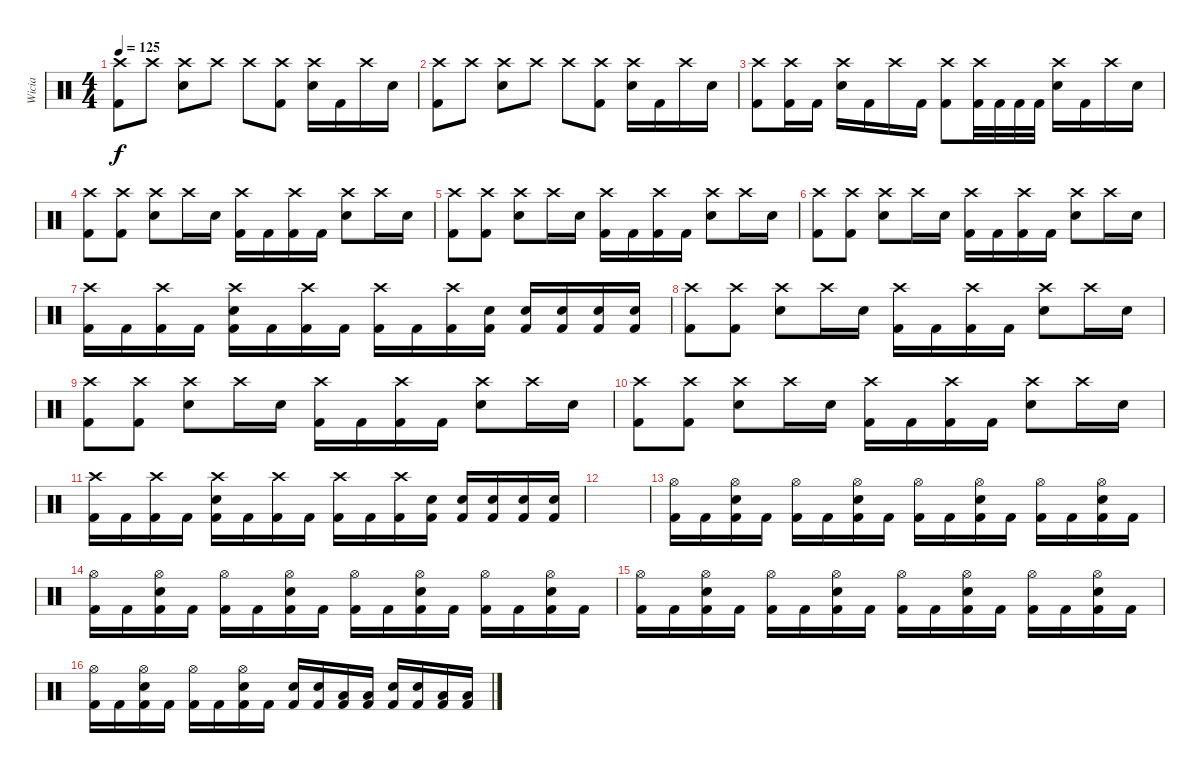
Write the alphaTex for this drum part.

\track ("Wicia" "Wicia") {instrument percussion}
\staff {score}
\articulation defaults
\ts (4 4)
\tempo 125
\clef neutral
\ks c
("Crash high (hit)" "Kick (hit) 2").8{dy f} "Crash high (hit)".8 ("Crash high (hit)" "Electric Snare (hit)").8 "Crash high (hit)".8 "Crash high (hit)".8 ("Crash high (hit)" "Kick (hit) 2").8 ("Crash high (hit)" "Electric Snare (hit)").16 "Kick (hit) 2".16 "Crash high (hit)".16 "Electric Snare (hit)".16 |
("Crash high (hit)" "Kick (hit) 2").8 "Crash high (hit)".8 ("Crash high (hit)" "Electric Snare (hit)").8 "Crash high (hit)".8 "Crash high (hit)".8 ("Crash high (hit)" "Kick (hit) 2").8 ("Crash high (hit)" "Electric Snare (hit)").16 "Kick (hit) 2".16 "Crash high (hit)".16 "Electric Snare (hit)".16 |
("Crash high (hit)" "Kick (hit) 2").8 ("Crash high (hit)" "Kick (hit) 2").16 "Kick (hit) 2".16 ("Crash high (hit)" "Electric Snare (hit)").16 "Kick (hit) 2".16 "Crash high (hit)".16 "Kick (hit) 2".16 ("Crash high (hit)" "Kick (hit) 2").8 ("Crash high (hit)" "Kick (hit) 2").32 "Kick (hit) 2".32 "Kick (hit) 2".32 "Kick (hit) 2".32 ("Crash high (hit)" "Electric Snare (hit)").16 "Kick (hit) 2".16 "Crash high (hit)".16 "Electric Snare (hit)".16 |
("Crash high (hit)" "Kick (hit) 2").8 ("Crash high (hit)" "Kick (hit) 2").8 ("Crash high (hit)" "Electric Snare (hit)").8 "Crash high (hit)".16 "Electric Snare (hit)".16 ("Crash high (hit)" "Kick (hit) 2").16 "Kick (hit) 2".16 ("Crash high (hit)" "Kick (hit) 2").16 "Kick (hit) 2".16 ("Crash high (hit)" "Electric Snare (hit)").8 "Crash high (hit)".16 "Electric Snare (hit)".16 |
("Crash high (hit)" "Kick (hit) 2").8 ("Crash high (hit)" "Kick (hit) 2").8 ("Crash high (hit)" "Electric Snare (hit)").8 "Crash high (hit)".16 "Electric Snare (hit)".16 ("Crash high (hit)" "Kick (hit) 2").16 "Kick (hit) 2".16 ("Crash high (hit)" "Kick (hit) 2").16 "Kick (hit) 2".16 ("Crash high (hit)" "Electric Snare (hit)").8 "Crash high (hit)".16 "Electric Snare (hit)".16 |
("Crash high (hit)" "Kick (hit) 2").8 ("Crash high (hit)" "Kick (hit) 2").8 ("Crash high (hit)" "Electric Snare (hit)").8 "Crash high (hit)".16 "Electric Snare (hit)".16 ("Crash high (hit)" "Kick (hit) 2").16 "Kick (hit) 2".16 ("Crash high (hit)" "Kick (hit) 2").16 "Kick (hit) 2".16 ("Crash high (hit)" "Electric Snare (hit)").8 "Crash high (hit)".16 "Electric Snare (hit)".16 |
("Crash high (hit)" "Kick (hit) 2").16 "Kick (hit) 2".16 ("Crash high (hit)" "Kick (hit) 2").16 "Kick (hit) 2".16 ("Crash high (hit)" "Electric Snare (hit)" "Kick (hit) 2").16 "Kick (hit) 2".16 ("Crash high (hit)" "Kick (hit) 2").16 "Kick (hit) 2".16 ("Crash high (hit)" "Kick (hit) 2").16 "Kick (hit) 2".16 ("Crash high (hit)" "Kick (hit) 2").16 ("Electric Snare (hit)" "Kick (hit) 2").16 ("Electric Snare (hit)" "Kick (hit) 2").16 ("Electric Snare (hit)" "Kick (hit) 2").16 ("Electric Snare (hit)" "Kick (hit) 2").16 ("Electric Snare (hit)" "Kick (hit) 2").16 |
("Crash high (hit)" "Kick (hit) 2").8 ("Crash high (hit)" "Kick (hit) 2").8 ("Crash high (hit)" "Electric Snare (hit)").8 "Crash high (hit)".16 "Electric Snare (hit)".16 ("Crash high (hit)" "Kick (hit) 2").16 "Kick (hit) 2".16 ("Crash high (hit)" "Kick (hit) 2").16 "Kick (hit) 2".16 ("Crash high (hit)" "Electric Snare (hit)").8 "Crash high (hit)".16 "Electric Snare (hit)".16 |
("Crash high (hit)" "Kick (hit) 2").8 ("Crash high (hit)" "Kick (hit) 2").8 ("Crash high (hit)" "Electric Snare (hit)").8 "Crash high (hit)".16 "Electric Snare (hit)".16 ("Crash high (hit)" "Kick (hit) 2").16 "Kick (hit) 2".16 ("Crash high (hit)" "Kick (hit) 2").16 "Kick (hit) 2".16 ("Crash high (hit)" "Electric Snare (hit)").8 "Crash high (hit)".16 "Electric Snare (hit)".16 |
("Crash high (hit)" "Kick (hit) 2").8 ("Crash high (hit)" "Kick (hit) 2").8 ("Crash high (hit)" "Electric Snare (hit)").8 "Crash high (hit)".16 "Electric Snare (hit)".16 ("Crash high (hit)" "Kick (hit) 2").16 "Kick (hit) 2".16 ("Crash high (hit)" "Kick (hit) 2").16 "Kick (hit) 2".16 ("Crash high (hit)" "Electric Snare (hit)").8 "Crash high (hit)".16 "Electric Snare (hit)".16 |
("Crash high (hit)" "Kick (hit) 2").16 "Kick (hit) 2".16 ("Crash high (hit)" "Kick (hit) 2").16 "Kick (hit) 2".16 ("Crash high (hit)" "Electric Snare (hit)" "Kick (hit) 2").16 "Kick (hit) 2".16 ("Crash high (hit)" "Kick (hit) 2").16 "Kick (hit) 2".16 ("Crash high (hit)" "Kick (hit) 2").16 "Kick (hit) 2".16 ("Crash high (hit)" "Kick (hit) 2").16 ("Electric Snare (hit)" "Kick (hit) 2").16 ("Electric Snare (hit)" "Kick (hit) 2").16 ("Electric Snare (hit)" "Kick (hit) 2").16 ("Electric Snare (hit)" "Kick (hit) 2").16 ("Electric Snare (hit)" "Kick (hit) 2").16 |
|
("Hi-Hat (open)" "Kick (hit) 2").16 "Kick (hit) 2".16 ("Hi-Hat (open)" "Electric Snare (hit)" "Kick (hit) 2").16 "Kick (hit) 2".16 ("Hi-Hat (open)" "Kick (hit) 2").16 "Kick (hit) 2".16 ("Hi-Hat (open)" "Electric Snare (hit)" "Kick (hit) 2").16 "Kick (hit) 2".16 ("Hi-Hat (open)" "Kick (hit) 2").16 "Kick (hit) 2".16 ("Hi-Hat (open)" "Electric Snare (hit)" "Kick (hit) 2").16 "Kick (hit) 2".16 ("Hi-Hat (open)" "Kick (hit) 2").16 "Kick (hit) 2".16 ("Hi-Hat (open)" "Electric Snare (hit)" "Kick (hit) 2").16 "Kick (hit) 2".16 |
("Hi-Hat (open)" "Kick (hit) 2").16 "Kick (hit) 2".16 ("Hi-Hat (open)" "Electric Snare (hit)" "Kick (hit) 2").16 "Kick (hit) 2".16 ("Hi-Hat (open)" "Kick (hit) 2").16 "Kick (hit) 2".16 ("Hi-Hat (open)" "Electric Snare (hit)" "Kick (hit) 2").16 "Kick (hit) 2".16 ("Hi-Hat (open)" "Kick (hit) 2").16 "Kick (hit) 2".16 ("Hi-Hat (open)" "Electric Snare (hit)" "Kick (hit) 2").16 "Kick (hit) 2".16 ("Hi-Hat (open)" "Kick (hit) 2").16 "Kick (hit) 2".16 ("Hi-Hat (open)" "Electric Snare (hit)" "Kick (hit) 2").16 "Kick (hit) 2".16 |
("Hi-Hat (open)" "Kick (hit) 2").16 "Kick (hit) 2".16 ("Hi-Hat (open)" "Electric Snare (hit)" "Kick (hit) 2").16 "Kick (hit) 2".16 ("Hi-Hat (open)" "Kick (hit) 2").16 "Kick (hit) 2".16 ("Hi-Hat (open)" "Electric Snare (hit)" "Kick (hit) 2").16 "Kick (hit) 2".16 ("Hi-Hat (open)" "Kick (hit) 2").16 "Kick (hit) 2".16 ("Hi-Hat (open)" "Electric Snare (hit)" "Kick (hit) 2").16 "Kick (hit) 2".16 ("Hi-Hat (open)" "Kick (hit) 2").16 "Kick (hit) 2".16 ("Hi-Hat (open)" "Electric Snare (hit)" "Kick (hit) 2").16 "Kick (hit) 2".16 |
("Hi-Hat (open)" "Kick (hit) 2").16 "Kick (hit) 2".16 ("Hi-Hat (open)" "Electric Snare (hit)" "Kick (hit) 2").16 "Kick (hit) 2".16 ("Hi-Hat (open)" "Kick (hit) 2").16 "Kick (hit) 2".16 ("Hi-Hat (open)" "Electric Snare (hit)" "Kick (hit) 2").16 "Kick (hit) 2".16 ("Electric Snare (hit)" "Kick (hit) 2").16 ("Electric Snare (hit)" "Kick (hit) 2").16 ("Low Tom (hit)" "Kick (hit) 2").16 ("Low Tom (hit)" "Kick (hit) 2").16 ("Electric Snare (hit)" "Kick (hit) 2").16 ("Electric Snare (hit)" "Kick (hit) 2").16 ("Low Tom (hit)" "Kick (hit) 2").16 ("Low Tom (hit)" "Kick (hit) 2").16
